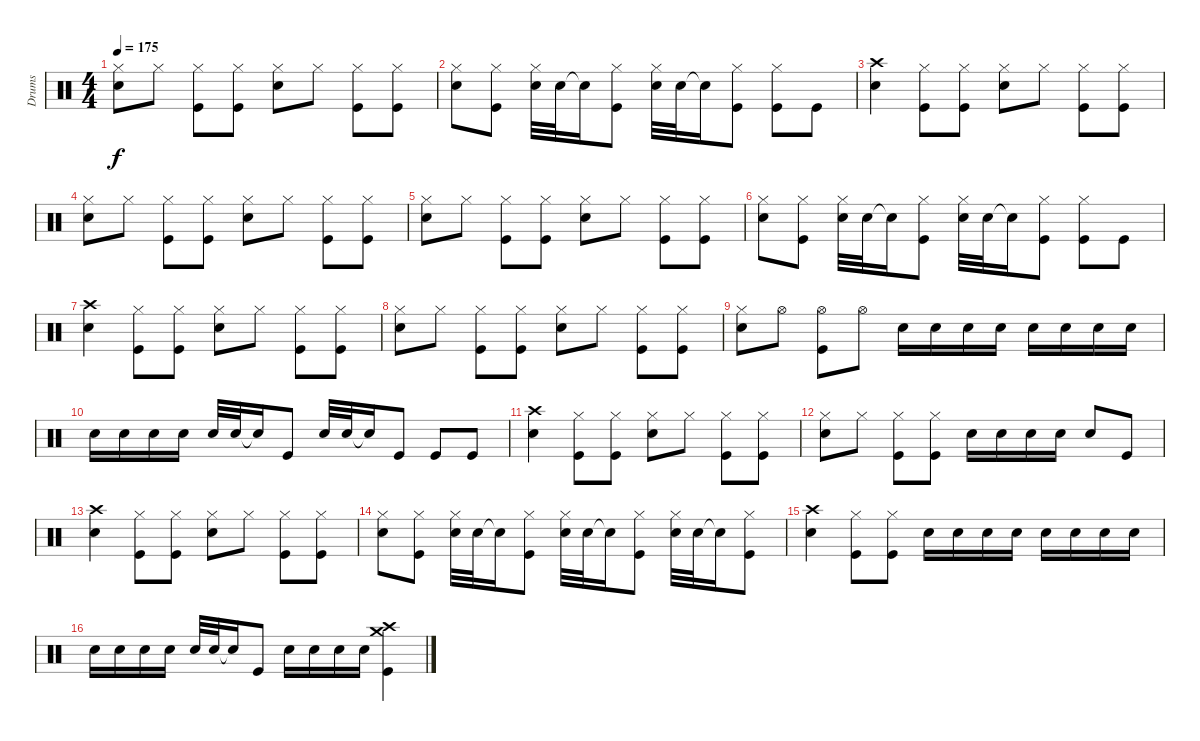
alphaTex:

\track ("Drums" "Drums") {instrument percussion}
\staff {score}
\articulation defaults
\ts (4 4)
\tempo 175
\clef neutral
\ks c
("Hi-Hat (closed)" "Snare (hit) 2").8{dy f} "Hi-Hat (closed)".8 ("Hi-Hat (closed)" "Kick (hit)").8 ("Hi-Hat (closed)" "Kick (hit)").8 ("Hi-Hat (closed)" "Snare (hit) 2").8 "Hi-Hat (closed)".8 ("Hi-Hat (closed)" "Kick (hit)").8 ("Hi-Hat (closed)" "Kick (hit)").8 |
("Hi-Hat (closed)" "Snare (hit) 2").8 ("Hi-Hat (closed)" "Kick (hit)").8 ("Hi-Hat (closed)" "Snare (hit) 2").32 "Snare (hit) 2".32 "Snare (hit)"{t}.16 ("Hi-Hat (closed)" "Kick (hit)").8 ("Hi-Hat (closed)" "Snare (hit) 2").32 "Snare (hit) 2".32 "Snare (hit)"{t}.16 ("Hi-Hat (closed)" "Kick (hit)").8 ("Hi-Hat (closed)" "Kick (hit)").8 "Kick (hit)".8 |
("Crash high (hit)" "Snare (hit) 2").4 ("Hi-Hat (closed)" "Kick (hit)").8 ("Hi-Hat (closed)" "Kick (hit)").8 ("Hi-Hat (closed)" "Snare (hit) 2").8 "Hi-Hat (closed)".8 ("Hi-Hat (closed)" "Kick (hit)").8 ("Hi-Hat (closed)" "Kick (hit)").8 |
("Hi-Hat (closed)" "Snare (hit) 2").8 "Hi-Hat (closed)".8 ("Hi-Hat (closed)" "Kick (hit)").8 ("Hi-Hat (closed)" "Kick (hit)").8 ("Hi-Hat (closed)" "Snare (hit) 2").8 "Hi-Hat (closed)".8 ("Hi-Hat (closed)" "Kick (hit)").8 ("Hi-Hat (closed)" "Kick (hit)").8 |
("Hi-Hat (closed)" "Snare (hit) 2").8 "Hi-Hat (closed)".8 ("Hi-Hat (closed)" "Kick (hit)").8 ("Hi-Hat (closed)" "Kick (hit)").8 ("Hi-Hat (closed)" "Snare (hit) 2").8 "Hi-Hat (closed)".8 ("Hi-Hat (closed)" "Kick (hit)").8 ("Hi-Hat (closed)" "Kick (hit)").8 |
("Hi-Hat (closed)" "Snare (hit) 2").8 ("Hi-Hat (closed)" "Kick (hit)").8 ("Hi-Hat (closed)" "Snare (hit) 2").32 "Snare (hit) 2".32 "Snare (hit)"{t}.16 ("Hi-Hat (closed)" "Kick (hit)").8 ("Hi-Hat (closed)" "Snare (hit) 2").32 "Snare (hit) 2".32 "Snare (hit)"{t}.16 ("Hi-Hat (closed)" "Kick (hit)").8 ("Hi-Hat (closed)" "Kick (hit)").8 "Kick (hit)".8 |
("Crash high (hit)" "Snare (hit) 2").4 ("Hi-Hat (closed)" "Kick (hit)").8 ("Hi-Hat (closed)" "Kick (hit)").8 ("Hi-Hat (closed)" "Snare (hit) 2").8 "Hi-Hat (closed)".8 ("Hi-Hat (closed)" "Kick (hit)").8 ("Hi-Hat (closed)" "Kick (hit)").8 |
("Hi-Hat (closed)" "Snare (hit) 2").8 "Hi-Hat (closed)".8 ("Hi-Hat (closed)" "Kick (hit)").8 ("Hi-Hat (closed)" "Kick (hit)").8 ("Hi-Hat (closed)" "Snare (hit) 2").8 "Hi-Hat (closed)".8 ("Hi-Hat (closed)" "Kick (hit)").8 ("Hi-Hat (closed)" "Kick (hit)").8 |
("Hi-Hat (closed)" "Snare (hit) 2").8 "Hi-Hat (open)".8 ("Hi-Hat (open)" "Kick (hit)").8 "Hi-Hat (open)".8 "Snare (hit) 2".16 "Snare (hit) 2".16 "Snare (hit) 2".16 "Snare (hit) 2".16 "Snare (hit) 2".16 "Snare (hit) 2".16 "Snare (hit) 2".16 "Snare (hit) 2".16 |
"Snare (hit) 2".16 "Snare (hit) 2".16 "Snare (hit) 2".16 "Snare (hit) 2".16 "Snare (hit) 2".32 "Snare (hit) 2".32 "Snare (hit)"{t}.16 "Kick (hit)".8 "Snare (hit) 2".32 "Snare (hit) 2".32 "Snare (hit)"{t}.16 "Kick (hit)".8 "Kick (hit)".8 "Kick (hit)".8 |
("Crash high (hit)" "Snare (hit) 2").4 ("Hi-Hat (closed)" "Kick (hit)").8 ("Hi-Hat (closed)" "Kick (hit)").8 ("Hi-Hat (closed)" "Snare (hit) 2").8 "Hi-Hat (closed)".8 ("Hi-Hat (closed)" "Kick (hit)").8 ("Hi-Hat (closed)" "Kick (hit)").8 |
("Hi-Hat (closed)" "Snare (hit) 2").8 "Hi-Hat (closed)".8 ("Hi-Hat (closed)" "Kick (hit)").8 ("Hi-Hat (closed)" "Kick (hit)").8 "Snare (hit) 2".16 "Snare (hit) 2".16 "Snare (hit) 2".16 "Snare (hit) 2".16 "Snare (hit) 2".8 "Kick (hit)".8 |
("Crash high (hit)" "Snare (hit) 2").4 ("Hi-Hat (closed)" "Kick (hit)").8 ("Hi-Hat (closed)" "Kick (hit)").8 ("Hi-Hat (closed)" "Snare (hit) 2").8 "Hi-Hat (closed)".8 ("Hi-Hat (closed)" "Kick (hit)").8 ("Hi-Hat (closed)" "Kick (hit)").8 |
("Hi-Hat (closed)" "Snare (hit) 2").8 ("Hi-Hat (closed)" "Kick (hit)").8 ("Hi-Hat (closed)" "Snare (hit) 2").32 "Snare (hit) 2".32 "Snare (hit)"{t}.16 ("Hi-Hat (closed)" "Kick (hit)").8 ("Hi-Hat (closed)" "Snare (hit) 2").32 "Snare (hit) 2".32 "Snare (hit)"{t}.16 ("Hi-Hat (closed)" "Kick (hit)").8 ("Hi-Hat (closed)" "Snare (hit) 2").32 "Snare (hit) 2".32 "Snare (hit)"{t}.16 ("Hi-Hat (closed)" "Kick (hit)").8 |
("Crash high (hit)" "Snare (hit) 2").4 ("Hi-Hat (closed)" "Kick (hit)").8 ("Hi-Hat (closed)" "Kick (hit)").8 "Snare (hit) 2".16 "Snare (hit) 2".16 "Snare (hit) 2".16 "Snare (hit) 2".16 "Snare (hit) 2".16 "Snare (hit) 2".16 "Snare (hit) 2".16 "Snare (hit) 2".16 |
"Snare (hit) 2".16 "Snare (hit) 2".16 "Snare (hit) 2".16 "Snare (hit) 2".16 "Snare (hit) 2".32 "Snare (hit) 2".32 "Snare (hit)"{t}.16 "Kick (hit)".8 "Snare (hit) 2".16 "Snare (hit) 2".16 "Snare (hit) 2".16 "Snare (hit) 2".16 ("Crash medium (hit)" "Crash high (hit)" "Kick (hit)").4
